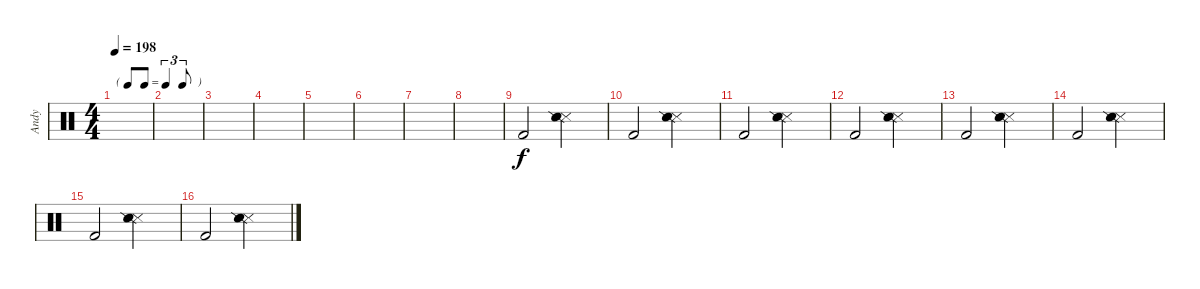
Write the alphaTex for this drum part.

\track ("Andy" "Andy") {instrument percussion}
\staff {score}
\articulation defaults
\ts (4 4)
\tf triplet8th
\tempo 198
\clef neutral
\ks c
|
|
|
|
|
|
|
|
"Kick (hit) 2".2 ("Snare (side stick) 3" "Snare (side stick) 2").2 |
"Kick (hit) 2".2 ("Snare (side stick) 3" "Snare (side stick) 2").2 |
"Kick (hit) 2".2 ("Snare (side stick) 3" "Snare (side stick) 2").2 |
"Kick (hit) 2".2 ("Snare (side stick) 3" "Snare (side stick) 2").2 |
"Kick (hit) 2".2 ("Snare (side stick) 3" "Snare (side stick) 2").2 |
"Kick (hit) 2".2 ("Snare (side stick) 3" "Snare (side stick) 2").2 |
"Kick (hit) 2".2 ("Snare (side stick) 3" "Snare (side stick) 2").2 |
"Kick (hit) 2".2 ("Snare (side stick) 3" "Snare (side stick) 2").2
